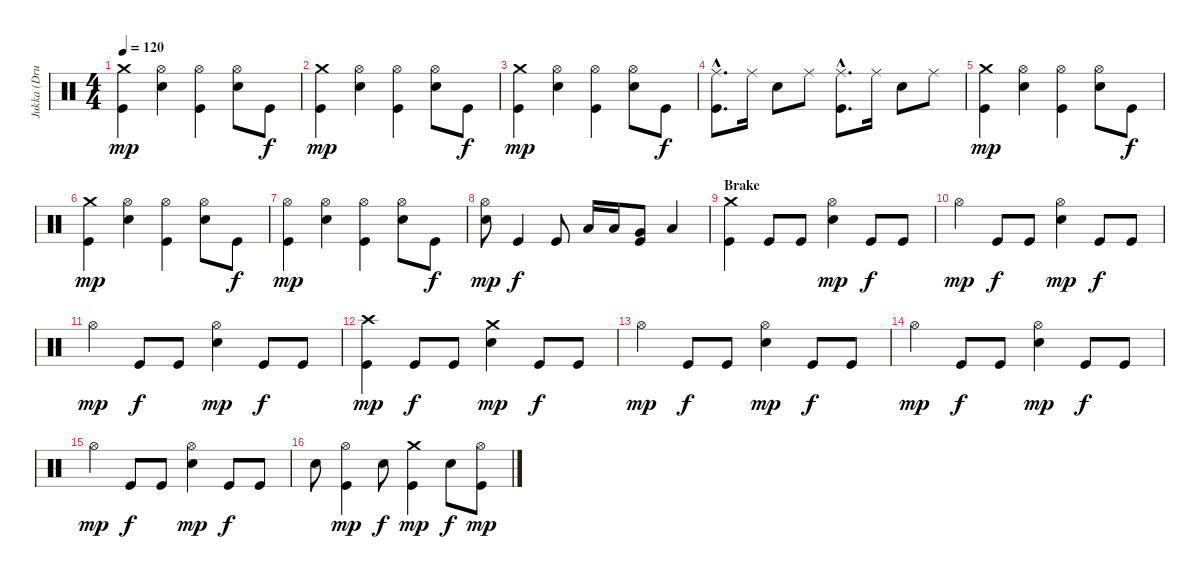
\track ("Jukka (Drums)" "Jukka (Dru") {instrument percussion}
\staff {score}
\articulation defaults
\ts (4 4)
\tempo 120
\clef neutral
\ks c
("Crash medium (hit)" "Kick (hit)").4{dy mp} ("Hi-Hat (open)" "Electric Snare (hit)").4 ("Hi-Hat (open)" "Kick (hit)").4 ("Hi-Hat (open)" "Electric Snare (hit)").8 "Kick (hit)".8{dy f} |
("Crash medium (hit)" "Kick (hit)").4{dy mp} ("Hi-Hat (open)" "Electric Snare (hit)").4 ("Hi-Hat (open)" "Kick (hit)").4 ("Hi-Hat (open)" "Electric Snare (hit)").8 "Kick (hit)".8{dy f} |
("Crash medium (hit)" "Kick (hit)").4{dy mp} ("Hi-Hat (open)" "Electric Snare (hit)").4 ("Hi-Hat (open)" "Kick (hit)").4 ("Hi-Hat (open)" "Electric Snare (hit)").8 "Kick (hit)".8{dy f} |
("Ride (middle)"{hac} "Kick (hit)"{hac}).8{d} "Ride (middle)".16 "Electric Snare (hit)".8 "Ride (middle)".8 ("Ride (middle)"{hac} "Kick (hit)"{hac}).8{d} "Ride (middle)".16 "Electric Snare (hit)".8 "Ride (middle)".8 |
("Crash medium (hit)" "Kick (hit)").4{dy mp} ("Hi-Hat (open)" "Electric Snare (hit)").4 ("Hi-Hat (open)" "Kick (hit)").4 ("Hi-Hat (open)" "Electric Snare (hit)").8 "Kick (hit)".8{dy f} |
("Crash medium (hit)" "Kick (hit)").4{dy mp} ("Hi-Hat (open)" "Electric Snare (hit)").4 ("Hi-Hat (open)" "Kick (hit)").4 ("Hi-Hat (open)" "Electric Snare (hit)").8 "Kick (hit)".8{dy f} |
("Hi-Hat (open)" "Kick (hit)").4{dy mp} ("Hi-Hat (open)" "Electric Snare (hit)").4 ("Hi-Hat (open)" "Kick (hit)").4 ("Hi-Hat (open)" "Electric Snare (hit)").8 "Kick (hit)".8{dy f} |
("Hi-Hat (open)" "Electric Snare (hit)").8{dy mp} "Kick (hit)".4{dy f} "Kick (hit)".8 "Low Tom (hit)".16 "Low Tom (hit)".16 ("Very Low Tom (hit)" "Kick (hit)").8 "Low Floor Tom (hit)".4 |
\section ("" "Brake")
("Crash medium (hit)" "Kick (hit)").4 "Kick (hit)".8 "Kick (hit)".8 ("Hi-Hat (open)" "Electric Snare (hit)").4{dy mp} "Kick (hit)".8{dy f} "Kick (hit)".8 |
"Hi-Hat (open)".4{dy mp} "Kick (hit)".8{dy f} "Kick (hit)".8 ("Hi-Hat (open)" "Electric Snare (hit)").4{dy mp} "Kick (hit)".8{dy f} "Kick (hit)".8 |
"Hi-Hat (open)".4{dy mp} "Kick (hit)".8{dy f} "Kick (hit)".8 ("Hi-Hat (open)" "Electric Snare (hit)").4{dy mp} "Kick (hit)".8{dy f} "Kick (hit)".8 |
("Crash high (hit)" "Kick (hit)").4{dy mp} "Kick (hit)".8{dy f} "Kick (hit)".8 ("Crash medium (hit)" "Electric Snare (hit)").4{dy mp} "Kick (hit)".8{dy f} "Kick (hit)".8 |
"Hi-Hat (open)".4{dy mp} "Kick (hit)".8{dy f} "Kick (hit)".8 ("Hi-Hat (open)" "Electric Snare (hit)").4{dy mp} "Kick (hit)".8{dy f} "Kick (hit)".8 |
"Hi-Hat (open)".4{dy mp} "Kick (hit)".8{dy f} "Kick (hit)".8 ("Hi-Hat (open)" "Electric Snare (hit)").4{dy mp} "Kick (hit)".8{dy f} "Kick (hit)".8 |
"Hi-Hat (open)".4{dy mp} "Kick (hit)".8{dy f} "Kick (hit)".8 ("Hi-Hat (open)" "Electric Snare (hit)").4{dy mp} "Kick (hit)".8{dy f} "Kick (hit)".8 |
"Electric Snare (hit)".8 ("Hi-Hat (open)" "Kick (hit)").4{dy mp} "Electric Snare (hit)".8{dy f} ("Crash medium (hit)" "Kick (hit)").4{dy mp} "Electric Snare (hit)".8{dy f} ("Hi-Hat (open)" "Kick (hit)").8{dy mp}
